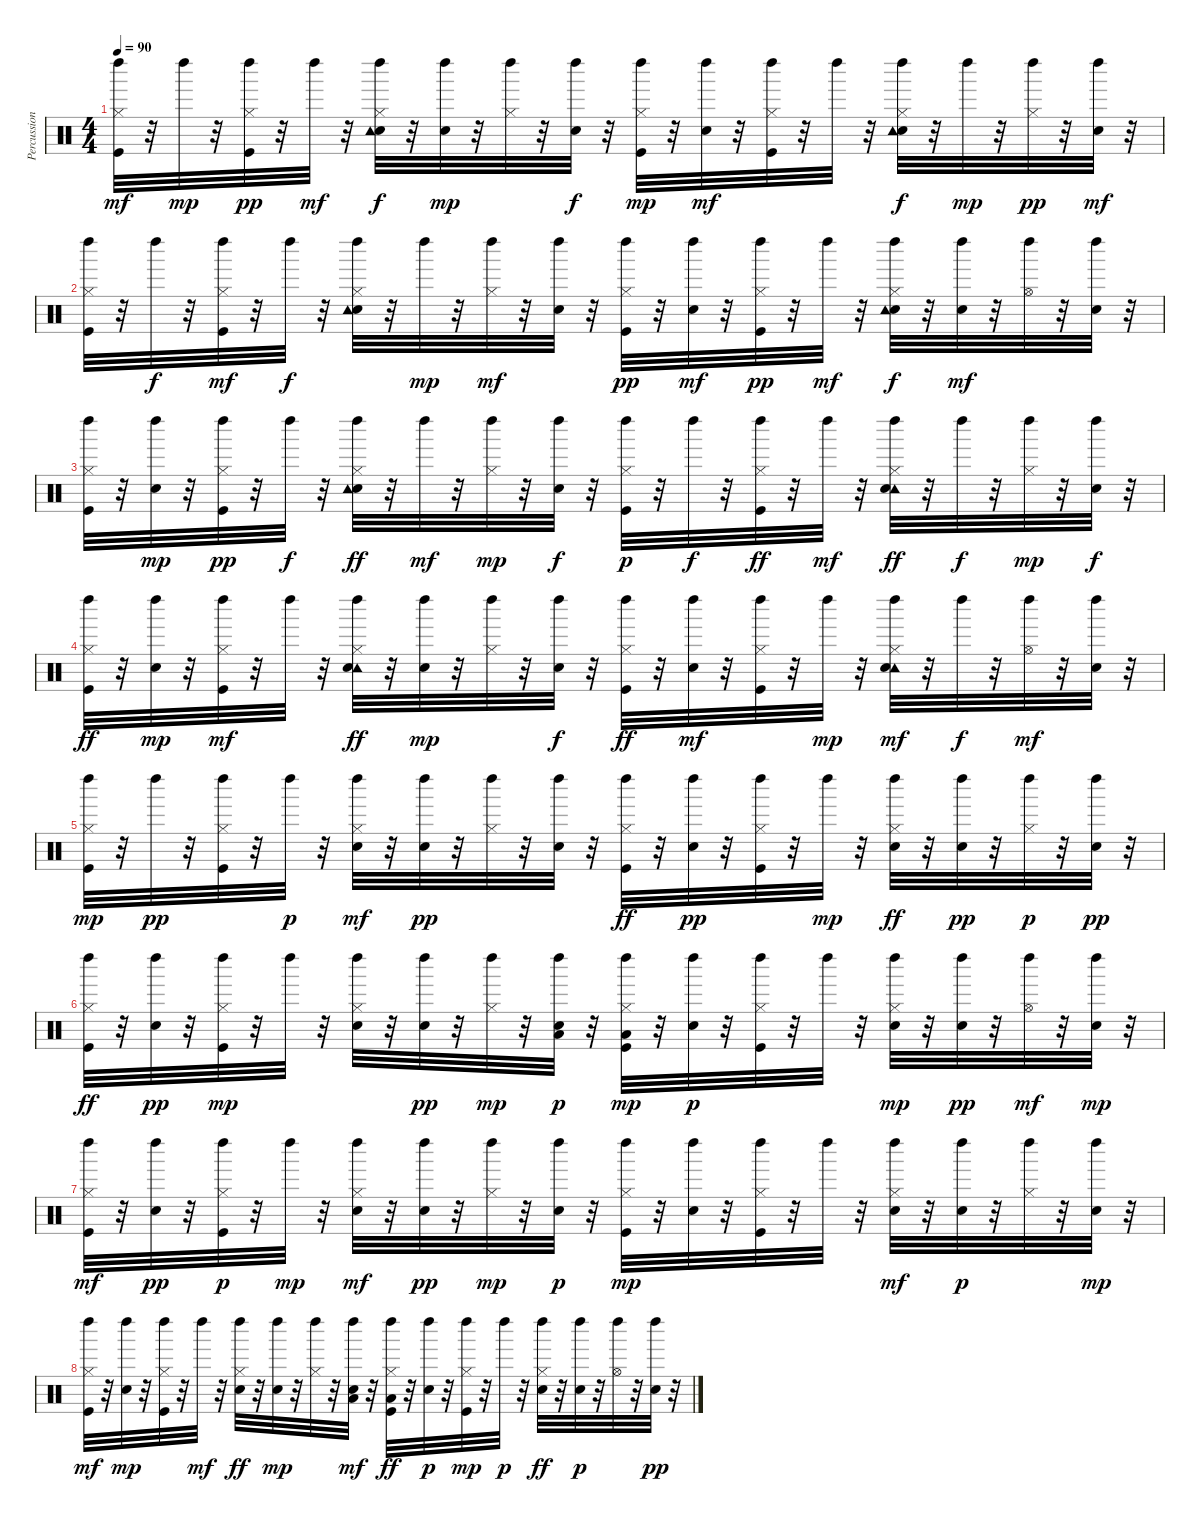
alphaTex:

\track ("Percussions" "Percussion") {instrument percussion}
\staff {score}
\articulation defaults
\ts (4 4)
\tempo 90
\clef neutral
\ks c
("Left Maraca (hit)" "Hi-Hat (closed)" "Kick (hit)").32{dy mf} r.32 "Left Maraca (hit)".32{dy mp} r.32 ("Hi-Hat (closed)" "Kick (hit)" "Left Maraca (hit)").32{dy pp} r.32 "Left Maraca (hit)".32{dy mf} r.32 ("Hi-Hat (closed)" "Electric Snare (hit)" "Left Maraca (hit)" "Tambourine (hit)").32{dy f} r.32 ("Electric Snare (hit)" "Left Maraca (hit)").32{dy mp} r.32 ("Hi-Hat (closed)" "Left Maraca (hit)").32 r.32 ("Left Maraca (hit)" "Electric Snare (hit)").32{dy f} r.32 ("Hi-Hat (closed)" "Left Maraca (hit)" "Kick (hit)").32{dy mp} r.32 ("Electric Snare (hit)" "Left Maraca (hit)").32{dy mf} r.32 ("Kick (hit)" "Left Maraca (hit)" "Hi-Hat (closed)").32 r.32 "Left Maraca (hit)".32 r.32 ("Electric Snare (hit)" "Tambourine (hit)" "Left Maraca (hit)" "Hi-Hat (closed)").32{dy f} r.32 "Left Maraca (hit)".32{dy mp} r.32 ("Hi-Hat (closed)" "Left Maraca (hit)").32{dy pp} r.32 ("Electric Snare (hit)" "Left Maraca (hit)").32{dy mf} r.32 |
("Kick (hit)" "Left Maraca (hit)" "Hi-Hat (closed)").32 r.32 "Left Maraca (hit)".32{dy f} r.32 ("Kick (hit)" "Left Maraca (hit)" "Hi-Hat (closed)").32{dy mf} r.32 "Left Maraca (hit)".32{dy f} r.32 ("Electric Snare (hit)" "Tambourine (hit)" "Left Maraca (hit)" "Hi-Hat (closed)").32 r.32 "Left Maraca (hit)".32{dy mp} r.32 ("Left Maraca (hit)" "Hi-Hat (closed)").32{dy mf} r.32 ("Electric Snare (hit)" "Left Maraca (hit)").32 r.32 ("Kick (hit)" "Left Maraca (hit)" "Hi-Hat (closed)").32{dy pp} r.32 ("Electric Snare (hit)" "Left Maraca (hit)").32{dy mf} r.32 ("Hi-Hat (closed)" "Kick (hit)" "Left Maraca (hit)").32{dy pp} r.32 "Left Maraca (hit)".32{dy mf} r.32 ("Hi-Hat (closed)" "Electric Snare (hit)" "Tambourine (hit)" "Left Maraca (hit)").32{dy f} r.32 ("Electric Snare (hit)" "Left Maraca (hit)").32{dy mf} r.32 ("Hi-Hat (open)" "Left Maraca (hit)").32 r.32 ("Left Maraca (hit)" "Electric Snare (hit)").32 r.32 |
("Kick (hit)" "Left Maraca (hit)" "Hi-Hat (closed)").32 r.32 ("Electric Snare (hit)" "Left Maraca (hit)").32{dy mp} r.32 ("Hi-Hat (closed)" "Kick (hit)" "Left Maraca (hit)").32{dy pp} r.32 "Left Maraca (hit)".32{dy f} r.32 ("Hi-Hat (closed)" "Electric Snare (hit)" "Tambourine (hit)" "Left Maraca (hit)").32{dy ff} r.32 "Left Maraca (hit)".32{dy mf} r.32 ("Hi-Hat (closed)" "Left Maraca (hit)").32{dy mp} r.32 ("Left Maraca (hit)" "Electric Snare (hit)").32{dy f} r.32 ("Kick (hit)" "Left Maraca (hit)" "Hi-Hat (closed)").32{dy p} r.32 "Left Maraca (hit)".32{dy f} r.32 ("Hi-Hat (closed)" "Left Maraca (hit)" "Kick (hit)").32{dy ff} r.32 "Left Maraca (hit)".32{dy mf} r.32 ("Tambourine (hit)" "Left Maraca (hit)" "Electric Snare (hit)" "Hi-Hat (closed)").32{dy ff} r.32 "Left Maraca (hit)".32{dy f} r.32 ("Left Maraca (hit)" "Hi-Hat (closed)").32{dy mp} r.32 ("Left Maraca (hit)" "Electric Snare (hit)").32{dy f} r.32 |
("Kick (hit)" "Hi-Hat (closed)" "Left Maraca (hit)").32{dy ff} r.32 ("Electric Snare (hit)" "Left Maraca (hit)").32{dy mp} r.32 ("Kick (hit)" "Left Maraca (hit)" "Hi-Hat (closed)").32{dy mf} r.32 "Left Maraca (hit)".32 r.32 ("Tambourine (hit)" "Hi-Hat (closed)" "Electric Snare (hit)" "Left Maraca (hit)").32{dy ff} r.32 ("Left Maraca (hit)" "Electric Snare (hit)").32{dy mp} r.32 ("Hi-Hat (closed)" "Left Maraca (hit)").32 r.32 ("Left Maraca (hit)" "Electric Snare (hit)").32{dy f} r.32 ("Left Maraca (hit)" "Hi-Hat (closed)" "Kick (hit)").32{dy ff} r.32 ("Left Maraca (hit)" "Electric Snare (hit)").32{dy mf} r.32 ("Left Maraca (hit)" "Hi-Hat (closed)" "Kick (hit)").32 r.32 "Left Maraca (hit)".32{dy mp} r.32 ("Tambourine (hit)" "Hi-Hat (closed)" "Electric Snare (hit)" "Left Maraca (hit)").32{dy mf} r.32 "Left Maraca (hit)".32{dy f} r.32 ("Hi-Hat (open)" "Left Maraca (hit)").32{dy mf} r.32 ("Electric Snare (hit)" "Left Maraca (hit)").32 r.32 |
("Hi-Hat (closed)" "Kick (hit)" "Left Maraca (hit)").32{dy mp} r.32 "Left Maraca (hit)".32{dy pp} r.32 ("Kick (hit)" "Hi-Hat (closed)" "Left Maraca (hit)").32 r.32 "Left Maraca (hit)".32{dy p} r.32 ("Left Maraca (hit)" "Hi-Hat (closed)" "Electric Snare (hit)").32{dy mf} r.32 ("Left Maraca (hit)" "Electric Snare (hit)").32{dy pp} r.32 ("Left Maraca (hit)" "Hi-Hat (closed)").32 r.32 ("Electric Snare (hit)" "Left Maraca (hit)").32 r.32 ("Left Maraca (hit)" "Hi-Hat (closed)" "Kick (hit)").32{dy ff} r.32 ("Electric Snare (hit)" "Left Maraca (hit)").32{dy pp} r.32 ("Hi-Hat (closed)" "Kick (hit)" "Left Maraca (hit)").32 r.32 "Left Maraca (hit)".32{dy mp} r.32 ("Electric Snare (hit)" "Left Maraca (hit)" "Hi-Hat (closed)").32{dy ff} r.32 ("Electric Snare (hit)" "Left Maraca (hit)").32{dy pp} r.32 ("Hi-Hat (closed)" "Left Maraca (hit)").32{dy p} r.32 ("Left Maraca (hit)" "Electric Snare (hit)").32{dy pp} r.32 |
("Left Maraca (hit)" "Kick (hit)" "Hi-Hat (closed)").32{dy ff} r.32 ("Left Maraca (hit)" "Electric Snare (hit)").32{dy pp} r.32 ("Kick (hit)" "Left Maraca (hit)" "Hi-Hat (closed)").32{dy mp} r.32 "Left Maraca (hit)".32 r.32 ("Hi-Hat (closed)" "Electric Snare (hit)" "Left Maraca (hit)").32 r.32 ("Electric Snare (hit)" "Left Maraca (hit)").32{dy pp} r.32 ("Hi-Hat (closed)" "Left Maraca (hit)").32{dy mp} r.32 ("Electric Snare (hit)" "Low Tom (hit)" "Left Maraca (hit)").32{dy p} r.32 ("Hi-Hat (closed)" "Kick (hit)" "Low Floor Tom (hit)" "Left Maraca (hit)").32{dy mp} r.32 ("Electric Snare (hit)" "Left Maraca (hit)").32{dy p} r.32 ("Kick (hit)" "Hi-Hat (closed)" "Left Maraca (hit)").32 r.32 "Left Maraca (hit)".32 r.32 ("Hi-Hat (closed)" "Electric Snare (hit)" "Left Maraca (hit)").32{dy mp} r.32 ("Electric Snare (hit)" "Left Maraca (hit)").32{dy pp} r.32 ("Left Maraca (hit)" "Hi-Hat (open)").32{dy mf} r.32 ("Electric Snare (hit)" "Left Maraca (hit)").32{dy mp} r.32 |
("Hi-Hat (closed)" "Kick (hit)" "Left Maraca (hit)").32{dy mf} r.32 ("Electric Snare (hit)" "Left Maraca (hit)").32{dy pp} r.32 ("Kick (hit)" "Hi-Hat (closed)" "Left Maraca (hit)").32{dy p} r.32 "Left Maraca (hit)".32{dy mp} r.32 ("Electric Snare (hit)" "Hi-Hat (closed)" "Left Maraca (hit)").32{dy mf} r.32 ("Electric Snare (hit)" "Left Maraca (hit)").32{dy pp} r.32 ("Hi-Hat (closed)" "Left Maraca (hit)").32{dy mp} r.32 ("Electric Snare (hit)" "Left Maraca (hit)").32{dy p} r.32 ("Hi-Hat (closed)" "Kick (hit)" "Left Maraca (hit)").32{dy mp} r.32 ("Electric Snare (hit)" "Left Maraca (hit)").32 r.32 ("Hi-Hat (closed)" "Kick (hit)" "Left Maraca (hit)").32 r.32 "Left Maraca (hit)".32 r.32 ("Hi-Hat (closed)" "Electric Snare (hit)" "Left Maraca (hit)").32{dy mf} r.32 ("Electric Snare (hit)" "Left Maraca (hit)").32{dy p} r.32 ("Hi-Hat (closed)" "Left Maraca (hit)").32 r.32 ("Electric Snare (hit)" "Left Maraca (hit)").32{dy mp} r.32 |
("Hi-Hat (closed)" "Kick (hit)" "Left Maraca (hit)").32{dy mf} r.32 ("Electric Snare (hit)" "Left Maraca (hit)").32{dy mp} r.32 ("Hi-Hat (closed)" "Kick (hit)" "Left Maraca (hit)").32 r.32 "Left Maraca (hit)".32{dy mf} r.32 ("Electric Snare (hit)" "Left Maraca (hit)" "Hi-Hat (closed)").32{dy ff} r.32 ("Electric Snare (hit)" "Left Maraca (hit)").32{dy mp} r.32 ("Left Maraca (hit)" "Hi-Hat (closed)").32 r.32 ("Electric Snare (hit)" "Left Maraca (hit)" "Low Tom (hit)").32{dy mf} r.32 ("Kick (hit)" "Low Floor Tom (hit)" "Left Maraca (hit)" "Hi-Hat (closed)").32{dy ff} r.32 ("Electric Snare (hit)" "Left Maraca (hit)").32{dy p} r.32 ("Kick (hit)" "Left Maraca (hit)" "Hi-Hat (closed)").32{dy mp} r.32 "Left Maraca (hit)".32{dy p} r.32 ("Electric Snare (hit)" "Left Maraca (hit)" "Hi-Hat (closed)").32{dy ff} r.32 ("Electric Snare (hit)" "Left Maraca (hit)").32{dy p} r.32 ("Hi-Hat (open)" "Left Maraca (hit)").32 r.32 ("Left Maraca (hit)" "Electric Snare (hit)").32{dy pp} r.32
